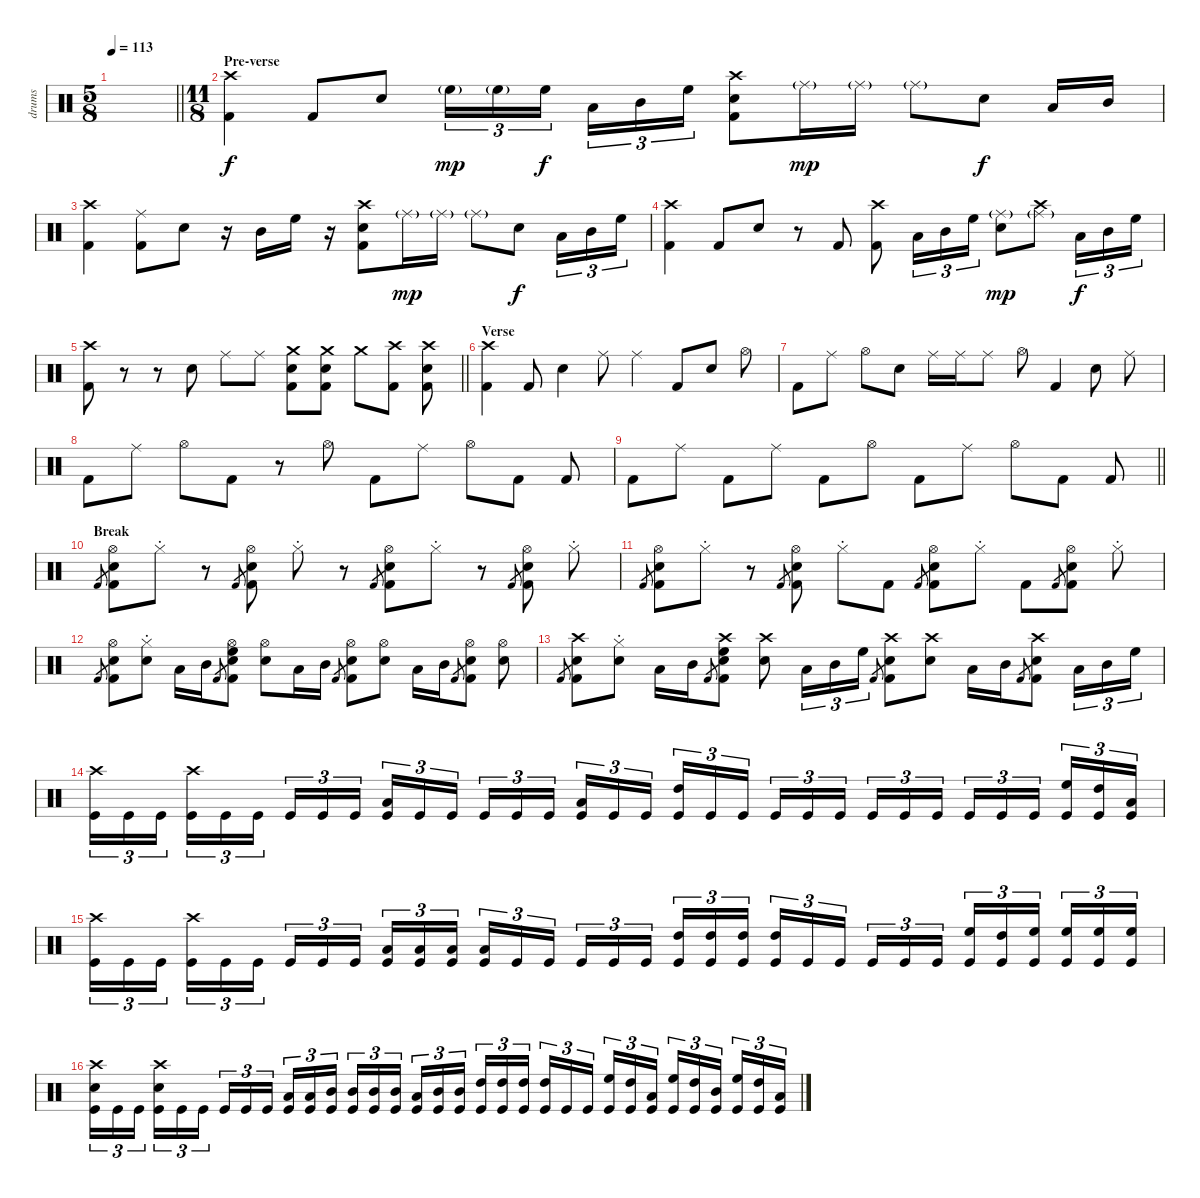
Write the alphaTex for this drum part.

\track ("drums" "drums") {instrument percussion}
\staff {score}
\articulation defaults
\ts (5 8)
\tempo 113
\clef neutral
\barLineRight lightlight
\ks c
|
\ts (11 8)
\section ("" "Pre-verse")
("Crash high (hit)" "Kick (hit) 2").4 "Kick (hit) 2".8 "Electric Snare (hit)".8 "High Floor Tom (hit)"{g}.16{tu (3 2) dy mp} "High Floor Tom (hit)"{g}.16{tu (3 2)} "High Floor Tom (hit)".16{tu (3 2) dy f} "Low Tom (hit)".16{tu (3 2)} "Mid Tom (hit)".16{tu (3 2)} "High Floor Tom (hit)".16{tu (3 2)} ("Crash high (hit)" "Electric Snare (hit)" "Kick (hit) 2").8 "Ride (middle)"{g}.16{dy mp} "Ride (middle)"{g}.16 "Ride (middle)"{g}.8 "Electric Snare (hit)".8{dy f} "Low Tom (hit)".16 "Mid Tom (hit)".16 |
("Crash high (hit)" "Kick (hit) 2").4 ("Ride (middle)" "Kick (hit) 2").8 "Electric Snare (hit)".8 r.16 "Mid Tom (hit)".16 "High Floor Tom (hit)".16 r.16 ("Crash high (hit)" "Electric Snare (hit)" "Kick (hit) 2").8 "Ride (middle)"{g}.16{dy mp} "Ride (middle)"{g}.16 "Ride (middle)"{g}.8 "Electric Snare (hit)".8{dy f} "Low Tom (hit)".16{tu (3 2)} "Mid Tom (hit)".16{tu (3 2)} "High Floor Tom (hit)".16{tu (3 2)} |
("Crash high (hit)" "Kick (hit) 2").4 "Kick (hit) 2".8 "Electric Snare (hit)".8 r.8 "Kick (hit) 2".8 ("Crash high (hit)" "Kick (hit) 2").8 "Low Tom (hit)".16{tu (3 2)} "Mid Tom (hit)".16{tu (3 2)} "High Floor Tom (hit)".16{tu (3 2)} ("Ride (middle)"{g} "Electric Snare (hit)").8{dy mp} ("Crash high (hit)" "Ride (middle)"{g}).8 "Low Tom (hit)".16{tu (3 2) dy f} "Mid Tom (hit)".16{tu (3 2)} "High Floor Tom (hit)".16{tu (3 2)} |
\barLineRight lightlight
("Crash high (hit)" "Kick (hit) 2").8 r.8 r.8 "Electric Snare (hit)".8 "Ride (middle)".8 "Ride (middle)".8 ("Crash medium (hit)" "Kick (hit) 2" "Electric Snare (hit)").8 ("Crash medium (hit)" "Kick (hit) 2" "Electric Snare (hit)").8 "Crash medium (hit)".8 ("Crash high (hit)" "Kick (hit) 2").8 ("Crash high (hit)" "Kick (hit) 2" "Electric Snare (hit)").8 |
\section ("" "Verse")
("Crash high (hit)" "Kick (hit) 2").4 "Kick (hit) 2".8 "Electric Snare (hit)".4 "Ride (middle)".8 "Ride (middle)".4 "Kick (hit) 2".8 "Electric Snare (hit)".8 "Hi-Hat (open)".8 |
"Kick (hit) 2".8 "Ride (middle)".8 "Hi-Hat (open)".8 "Electric Snare (hit)".8 "Ride (middle)".16 "Ride (middle)".16 "Ride (middle)".8 "Hi-Hat (open)".8 "Kick (hit) 2".4 "Electric Snare (hit)".8 "Ride (middle)".8 |
"Kick (hit) 2".8 "Ride (middle)".8 "Hi-Hat (open)".8 "Kick (hit) 2".8 r.8 "Hi-Hat (open)".8 "Kick (hit) 2".8 "Ride (middle)".8 "Hi-Hat (open)".8 "Kick (hit) 2".8 "Kick (hit) 2".8 |
\barLineRight lightlight "Kick (hit) 2".8 "Ride (middle)".8 "Kick (hit) 2".8 "Ride (middle)".8 "Kick (hit) 2".8 "Hi-Hat (open)".8 "Kick (hit) 2".8 "Ride (middle)".8 "Hi-Hat (open)".8 "Kick (hit) 2".8 "Kick (hit) 2".8
|
\section ("" "Break")
"Kick (hit) 2"{h}.8{gr} ("Hi-Hat (open)" "Electric Snare (hit)" "Kick (hit) 2").8 "Hi-Hat (closed)"{st}.8 r.8 "Kick (hit) 2"{h}.8{gr} ("Hi-Hat (open)" "Electric Snare (hit)" "Kick (hit) 2").8 "Hi-Hat (closed)"{st}.8 r.8 "Kick (hit) 2"{h}.8{gr} ("Hi-Hat (open)" "Electric Snare (hit)" "Kick (hit) 2").8 "Hi-Hat (closed)"{st}.8 r.8 "Kick (hit) 2"{h}.8{gr} ("Hi-Hat (open)" "Electric Snare (hit)" "Kick (hit) 2").8 "Hi-Hat (closed)"{st}.8 |
"Kick (hit) 2"{h}.8{gr} ("Hi-Hat (open)" "Electric Snare (hit)" "Kick (hit) 2").8 "Hi-Hat (closed)"{st}.8 r.8 "Kick (hit) 2"{h}.8{gr} ("Hi-Hat (open)" "Electric Snare (hit)" "Kick (hit) 2").8 "Hi-Hat (closed)"{st}.8 "Kick (hit) 2".8 "Kick (hit) 2"{h}.8{gr} ("Hi-Hat (open)" "Electric Snare (hit)" "Kick (hit) 2").8 "Hi-Hat (closed)"{st}.8 "Kick (hit) 2".8 "Kick (hit) 2"{h}.8{gr} ("Hi-Hat (open)" "Electric Snare (hit)" "Kick (hit) 2").8 "Hi-Hat (closed)"{st}.8 |
"Kick (hit) 2"{h}.8{gr} ("Hi-Hat (open)" "Electric Snare (hit)" "Kick (hit) 2").8 ("Hi-Hat (closed)"{st} "Electric Snare (hit)").8 "Low Tom (hit)".16 "Mid Tom (hit)".16 "Kick (hit) 2"{h}.8{gr} ("Hi-Hat (open)" "Electric Snare (hit)" "Kick (hit) 2" "High Floor Tom (hit)").8 ("Hi-Hat (open)" "Electric Snare (hit)").8 "Low Tom (hit)".16 "Mid Tom (hit)".16 "Kick (hit) 2"{h}.8{gr} ("Hi-Hat (open)" "Electric Snare (hit)" "Kick (hit) 2").8 ("Hi-Hat (open)" "Electric Snare (hit)").8 "Low Tom (hit)".16 "Mid Tom (hit)".16 "Kick (hit) 2"{h}.8{gr} ("Hi-Hat (open)" "Electric Snare (hit)" "Kick (hit) 2").8 ("Hi-Hat (open)" "Electric Snare (hit)").8 |
"Kick (hit) 2"{h}.8{gr} ("Crash high (hit)" "Electric Snare (hit)" "Kick (hit) 2").8 ("Hi-Hat (closed)"{st} "Electric Snare (hit)").8 "Low Tom (hit)".16 "Mid Tom (hit)".16 "Kick (hit) 2"{h}.8{gr} ("Crash high (hit)" "Electric Snare (hit)" "Kick (hit) 2" "High Floor Tom (hit)").8 ("Crash high (hit)" "Electric Snare (hit)").8 "Low Tom (hit)".16{tu (3 2)} "Mid Tom (hit)".16{tu (3 2)} "High Floor Tom (hit)".16{tu (3 2)} "Kick (hit) 2"{h}.8{gr} ("Crash high (hit)" "Electric Snare (hit)" "Kick (hit) 2").8 ("Crash high (hit)" "Electric Snare (hit)").8 "Low Tom (hit)".16 "Mid Tom (hit)".16 "Kick (hit) 2"{h}.8{gr} ("Crash high (hit)" "Electric Snare (hit)" "Kick (hit) 2").8 "Low Tom (hit)".16{tu (3 2)} "Mid Tom (hit)".16{tu (3 2)} "High Floor Tom (hit)".16{tu (3 2)} |
("Crash high (hit)" "Kick (hit)").16{tu (3 2)} "Kick (hit)".16{tu (3 2)} "Kick (hit)".16{tu (3 2)} ("Crash high (hit)" "Kick (hit)").16{tu (3 2)} "Kick (hit)".16{tu (3 2)} "Kick (hit)".16{tu (3 2)} "Kick (hit)".16{tu (3 2)} "Kick (hit)".16{tu (3 2)} "Kick (hit)".16{tu (3 2)} ("Low Tom (hit)" "Kick (hit)").16{tu (3 2)} "Kick (hit)".16{tu (3 2)} "Kick (hit)".16{tu (3 2)} "Kick (hit)".16{tu (3 2)} "Kick (hit)".16{tu (3 2)} "Kick (hit)".16{tu (3 2)} ("Low Tom (hit)" "Kick (hit)").16{tu (3 2)} "Kick (hit)".16{tu (3 2)} "Kick (hit)".16{tu (3 2)} ("High Tom (hit)" "Kick (hit)").16{tu (3 2)} "Kick (hit)".16{tu (3 2)} "Kick (hit)".16{tu (3 2)} "Kick (hit)".16{tu (3 2)} "Kick (hit)".16{tu (3 2)} "Kick (hit)".16{tu (3 2)} "Kick (hit)".16{tu (3 2)} "Kick (hit)".16{tu (3 2)} "Kick (hit)".16{tu (3 2)} "Kick (hit)".16{tu (3 2)} "Kick (hit)".16{tu (3 2)} "Kick (hit)".16{tu (3 2)} ("High Floor Tom (hit)" "Kick (hit)").16{tu (3 2)} ("High Tom (hit)" "Kick (hit)").16{tu (3 2)} ("Low Tom (hit)" "Kick (hit)").16{tu (3 2)} |
("Crash high (hit)" "Kick (hit)").16{tu (3 2)} "Kick (hit)".16{tu (3 2)} "Kick (hit)".16{tu (3 2)} ("Crash high (hit)" "Kick (hit)").16{tu (3 2)} "Kick (hit)".16{tu (3 2)} "Kick (hit)".16{tu (3 2)} "Kick (hit)".16{tu (3 2)} "Kick (hit)".16{tu (3 2)} "Kick (hit)".16{tu (3 2)} ("Low Tom (hit)" "Kick (hit)").16{tu (3 2)} ("Low Tom (hit)" "Kick (hit)").16{tu (3 2)} ("Low Tom (hit)" "Kick (hit)").16{tu (3 2)} ("Low Tom (hit)" "Kick (hit)").16{tu (3 2)} "Kick (hit)".16{tu (3 2)} "Kick (hit)".16{tu (3 2)} "Kick (hit)".16{tu (3 2)} "Kick (hit)".16{tu (3 2)} "Kick (hit)".16{tu (3 2)} ("High Tom (hit)" "Kick (hit)").16{tu (3 2)} ("High Tom (hit)" "Kick (hit)").16{tu (3 2)} ("High Tom (hit)" "Kick (hit)").16{tu (3 2)} ("High Tom (hit)" "Kick (hit)").16{tu (3 2)} "Kick (hit)".16{tu (3 2)} "Kick (hit)".16{tu (3 2)} "Kick (hit)".16{tu (3 2)} "Kick (hit)".16{tu (3 2)} "Kick (hit)".16{tu (3 2)} ("High Floor Tom (hit)" "Kick (hit)").16{tu (3 2)} ("High Tom (hit)" "Kick (hit)").16{tu (3 2)} ("High Floor Tom (hit)" "Kick (hit)").16{tu (3 2)} ("High Floor Tom (hit)" "Kick (hit)").16{tu (3 2)} ("High Floor Tom (hit)" "Kick (hit)").16{tu (3 2)} ("High Floor Tom (hit)" "Kick (hit)").16{tu (3 2)} |
("Crash high (hit)" "Electric Snare (hit)" "Kick (hit)").16{tu (3 2)} "Kick (hit)".16{tu (3 2)} "Kick (hit)".16{tu (3 2)} ("Crash high (hit)" "Electric Snare (hit)" "Kick (hit)").16{tu (3 2)} "Kick (hit)".16{tu (3 2)} "Kick (hit)".16{tu (3 2)} "Kick (hit)".16{tu (3 2)} "Kick (hit)".16{tu (3 2)} "Kick (hit)".16{tu (3 2)} ("Low Tom (hit)" "Kick (hit)").16{tu (3 2)} ("Low Tom (hit)" "Kick (hit)").16{tu (3 2)} ("Mid Tom (hit)" "Kick (hit)").16{tu (3 2)} ("Mid Tom (hit)" "Kick (hit)").16{tu (3 2)} ("Mid Tom (hit)" "Kick (hit)").16{tu (3 2)} ("Mid Tom (hit)" "Kick (hit)").16{tu (3 2)} ("Low Tom (hit)" "Kick (hit)").16{tu (3 2)} ("Mid Tom (hit)" "Kick (hit)").16{tu (3 2)} ("Mid Tom (hit)" "Kick (hit)").16{tu (3 2)} ("High Tom (hit)" "Kick (hit)").16{tu (3 2)} ("High Tom (hit)" "Kick (hit)").16{tu (3 2)} ("High Tom (hit)" "Kick (hit)").16{tu (3 2)} ("High Tom (hit)" "Kick (hit)").16{tu (3 2)} "Kick (hit)".16{tu (3 2)} "Kick (hit)".16{tu (3 2)} ("High Floor Tom (hit)" "Kick (hit)").16{tu (3 2)} ("High Tom (hit)" "Kick (hit)").16{tu (3 2)} ("Low Tom (hit)" "Kick (hit)").16{tu (3 2)} ("High Floor Tom (hit)" "Kick (hit)").16{tu (3 2)} ("High Tom (hit)" "Kick (hit)").16{tu (3 2)} ("Mid Tom (hit)" "Kick (hit)").16{tu (3 2)} ("High Floor Tom (hit)" "Kick (hit)").16{tu (3 2)} ("High Tom (hit)" "Kick (hit)").16{tu (3 2)} ("Low Tom (hit)" "Kick (hit)").16{tu (3 2)}
